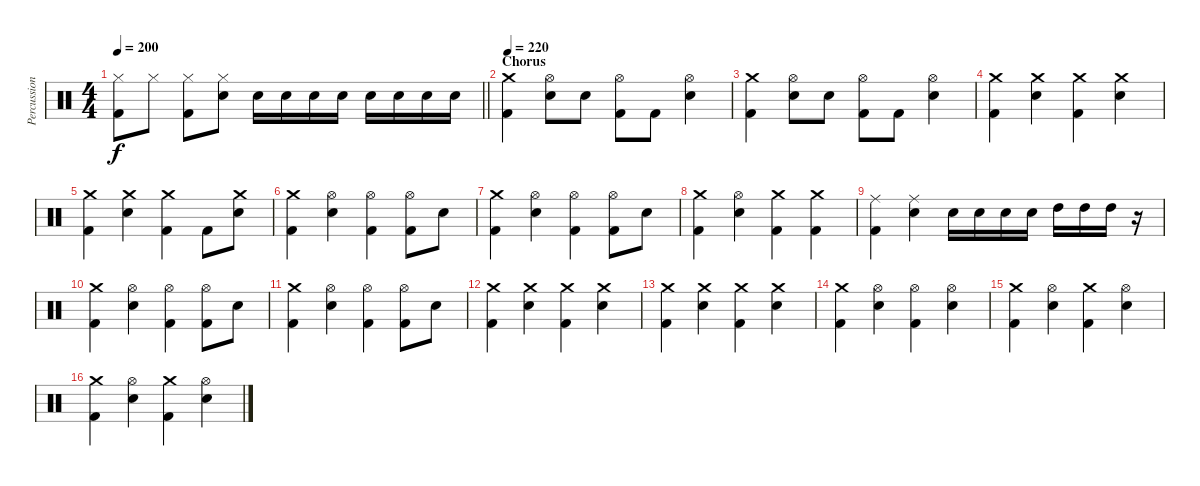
\track ("Percussion" "Percussion") {instrument percussion}
\staff {score}
\articulation defaults
\ts (4 4)
\tempo 200
\clef neutral
\barLineRight lightlight
\ks c
("Hi-Hat (closed)" "Kick (hit) 2").8{dy f} "Hi-Hat (closed)".8 ("Hi-Hat (closed)" "Kick (hit) 2").8 ("Hi-Hat (closed)" "Snare (hit) 2").8 "Snare (hit) 2".16 "Snare (hit) 2".16 "Snare (hit) 2".16 "Snare (hit) 2".16 "Snare (hit) 2".16 "Snare (hit) 2".16 "Snare (hit) 2".16 "Snare (hit) 2".16 |
\section ("" "Chorus")
\tempo 220
("Crash medium (hit)" "Kick (hit) 2").4 ("Hi-Hat (open)" "Snare (hit) 2").8 "Snare (hit) 2".8 ("Hi-Hat (open)" "Kick (hit) 2").8 "Kick (hit) 2".8 ("Hi-Hat (open)" "Snare (hit) 2").4 |
("Crash medium (hit)" "Kick (hit) 2").4 ("Hi-Hat (open)" "Snare (hit) 2").8 "Snare (hit) 2".8 ("Hi-Hat (open)" "Kick (hit) 2").8 "Kick (hit) 2".8 ("Hi-Hat (open)" "Snare (hit) 2").4 |
("Crash medium (hit)" "Kick (hit) 2").4 ("Crash medium (hit)" "Snare (hit) 2").4 ("Crash medium (hit)" "Kick (hit) 2").4 ("Crash medium (hit)" "Snare (hit) 2").4 |
("Crash medium (hit)" "Kick (hit) 2").4 ("Crash medium (hit)" "Snare (hit) 2").4 ("Crash medium (hit)" "Kick (hit) 2").4 "Kick (hit) 2".8 ("Crash medium (hit)" "Snare (hit) 2").8 |
("Crash medium (hit)" "Kick (hit) 2").4 ("Hi-Hat (open)" "Snare (hit) 2").4 ("Hi-Hat (open)" "Kick (hit) 2").4 ("Hi-Hat (open)" "Kick (hit) 2").8 "Snare (hit) 2".8 |
("Crash medium (hit)" "Kick (hit) 2").4 ("Hi-Hat (open)" "Snare (hit) 2").4 ("Hi-Hat (open)" "Kick (hit) 2").4 ("Hi-Hat (open)" "Kick (hit) 2").8 "Snare (hit) 2".8 |
("Crash medium (hit)" "Kick (hit) 2").4 ("Hi-Hat (open)" "Snare (hit) 2").4 ("Crash medium (hit)" "Kick (hit) 2").4 ("Crash medium (hit)" "Kick (hit) 2").4 |
("Ride (middle)" "Kick (hit) 2").4 ("Ride (middle)" "Snare (hit) 2").4 "Snare (hit) 2".16 "Snare (hit) 2".16 "Snare (hit) 2".16 "Snare (hit) 2".16 "High Tom (hit)".16 "High Tom (hit)".16 "High Tom (hit)".16 r.16 |
("Crash medium (hit)" "Kick (hit) 2").4 ("Hi-Hat (open)" "Snare (hit) 2").4 ("Hi-Hat (open)" "Kick (hit) 2").4 ("Hi-Hat (open)" "Kick (hit) 2").8 "Snare (hit) 2".8 |
("Crash medium (hit)" "Kick (hit) 2").4 ("Hi-Hat (open)" "Snare (hit) 2").4 ("Hi-Hat (open)" "Kick (hit) 2").4 ("Hi-Hat (open)" "Kick (hit) 2").8 "Snare (hit) 2".8 |
("Crash medium (hit)" "Kick (hit) 2").4 ("Crash medium (hit)" "Snare (hit) 2").4 ("Crash medium (hit)" "Kick (hit) 2").4 ("Crash medium (hit)" "Snare (hit) 2").4 |
("Crash medium (hit)" "Kick (hit) 2").4 ("Crash medium (hit)" "Snare (hit) 2").4 ("Crash medium (hit)" "Kick (hit) 2").4 ("Crash medium (hit)" "Snare (hit) 2").4 |
("Crash medium (hit)" "Kick (hit) 2").4 ("Hi-Hat (open)" "Snare (hit) 2").4 ("Hi-Hat (open)" "Kick (hit) 2").4 ("Hi-Hat (open)" "Snare (hit) 2").4 |
("Crash medium (hit)" "Kick (hit) 2").4 ("Hi-Hat (open)" "Snare (hit) 2").4 ("Crash medium (hit)" "Kick (hit) 2").4 ("Hi-Hat (open)" "Snare (hit) 2").4 |
("Crash medium (hit)" "Kick (hit) 2").4 ("Hi-Hat (open)" "Snare (hit) 2").4 ("Crash medium (hit)" "Kick (hit) 2").4 ("Hi-Hat (open)" "Snare (hit) 2").4
